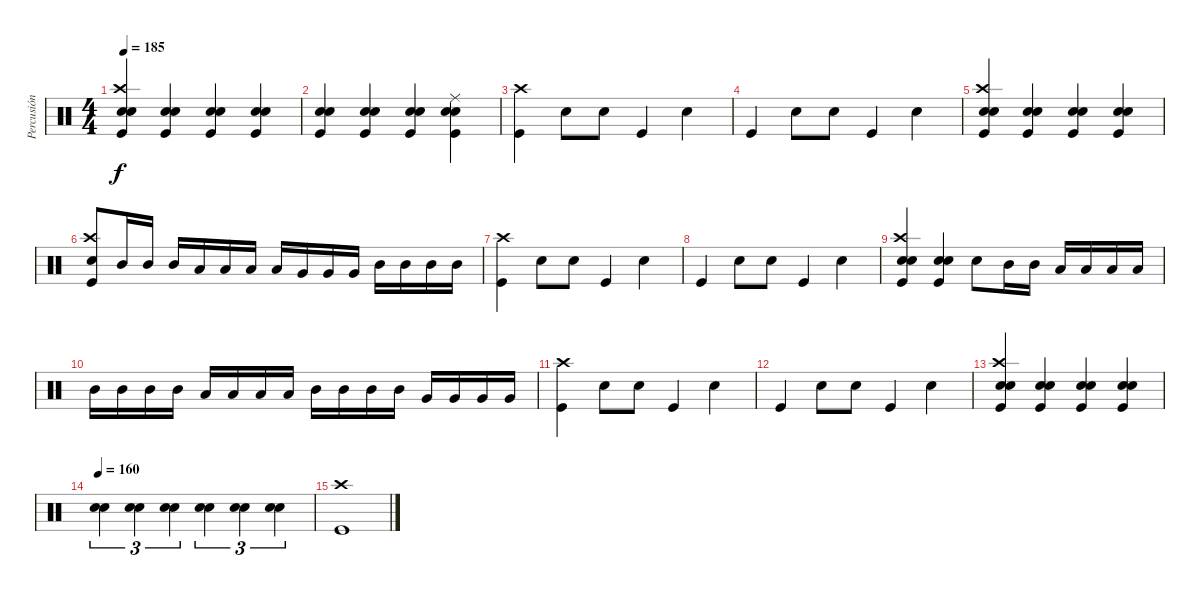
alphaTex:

\track ("Percusión" "Percusión") {instrument percussion}
\staff {score}
\articulation defaults
\ts (4 4)
\tempo 185
\clef neutral
\ks c
("Snare (hit) 2" "Snare (hit) 2" "Crash high (hit)" "Kick (hit)").4{dy f} ("Snare (hit) 2" "Snare (hit) 2" "Kick (hit)").4 ("Snare (hit) 2" "Snare (hit) 2" "Kick (hit)").4 ("Snare (hit) 2" "Snare (hit) 2" "Kick (hit)").4 |
("Snare (hit) 2" "Snare (hit) 2" "Kick (hit)").4 ("Snare (hit) 2" "Snare (hit) 2" "Kick (hit)").4 ("Snare (hit) 2" "Snare (hit) 2" "Kick (hit)").4 ("Snare (hit) 2" "Snare (hit) 2" "Ride (middle)" "Kick (hit)").4 |
("Kick (hit)" "Crash high (hit)").4 "Snare (hit) 2".8 "Snare (hit) 2".8 "Kick (hit)".4 "Snare (hit) 2".4 |
"Kick (hit)".4 "Snare (hit) 2".8 "Snare (hit) 2".8 "Kick (hit)".4 "Snare (hit) 2".4 |
("Snare (hit) 2" "Snare (hit) 2" "Crash high (hit)" "Kick (hit)").4 ("Snare (hit) 2" "Snare (hit) 2" "Kick (hit)").4 ("Snare (hit) 2" "Snare (hit) 2" "Kick (hit)").4 ("Snare (hit) 2" "Snare (hit) 2" "Kick (hit)").4 |
("Snare (hit) 2" "Kick (hit)" "Crash high (hit)").8 "Mid Tom (hit)".16 "Mid Tom (hit)".16 "Mid Tom (hit)".16 "Low Tom (hit)".16 "Low Tom (hit)".16 "Low Tom (hit)".16 "Low Tom (hit)".16 "Very Low Tom (hit)".16 "Very Low Tom (hit)".16 "Very Low Tom (hit)".16 "Mid Tom (hit)".16 "Mid Tom (hit)".16 "Mid Tom (hit)".16 "Mid Tom (hit)".16 |
("Kick (hit)" "Crash high (hit)").4 "Snare (hit) 2".8 "Snare (hit) 2".8 "Kick (hit)".4 "Snare (hit) 2".4 |
"Kick (hit)".4 "Snare (hit) 2".8 "Snare (hit) 2".8 "Kick (hit)".4 "Snare (hit) 2".4 |
("Snare (hit) 2" "Snare (hit) 2" "Crash high (hit)" "Kick (hit)").4 ("Snare (hit) 2" "Snare (hit) 2" "Kick (hit)").4 "Snare (hit) 2".8 "Mid Tom (hit)".16 "Mid Tom (hit)".16 "Low Tom (hit)".16 "Low Tom (hit)".16 "Low Tom (hit)".16 "Low Tom (hit)".16 |
"Mid Tom (hit)".16 "Mid Tom (hit)".16 "Mid Tom (hit)".16 "Mid Tom (hit)".16 "Low Tom (hit)".16 "Low Tom (hit)".16 "Low Tom (hit)".16 "Low Tom (hit)".16 "Mid Tom (hit)".16 "Mid Tom (hit)".16 "Mid Tom (hit)".16 "Mid Tom (hit)".16 "Very Low Tom (hit)".16 "Very Low Tom (hit)".16 "Very Low Tom (hit)".16 "Very Low Tom (hit)".16 |
("Kick (hit)" "Crash high (hit)").4 "Snare (hit) 2".8 "Snare (hit) 2".8 "Kick (hit)".4 "Snare (hit) 2".4 |
"Kick (hit)".4 "Snare (hit) 2".8 "Snare (hit) 2".8 "Kick (hit)".4 "Snare (hit) 2".4 |
("Snare (hit) 2" "Snare (hit) 2" "Crash high (hit)" "Kick (hit)").4 ("Snare (hit) 2" "Snare (hit) 2" "Kick (hit)").4 ("Snare (hit) 2" "Snare (hit) 2" "Kick (hit)").4 ("Snare (hit) 2" "Snare (hit) 2" "Kick (hit)").4 |
\tempo 160
("Snare (hit) 2" "Snare (hit) 2").4{tu (3 2)} ("Snare (hit) 2" "Snare (hit) 2").4{tu (3 2)} ("Snare (hit) 2" "Snare (hit) 2").4{tu (3 2)} ("Snare (hit) 2" "Snare (hit) 2").4{tu (3 2)} ("Snare (hit) 2" "Snare (hit) 2").4{tu (3 2)} ("Snare (hit) 2" "Snare (hit) 2").4{tu (3 2)} |
("Crash high (hit)" "Kick (hit)").1
